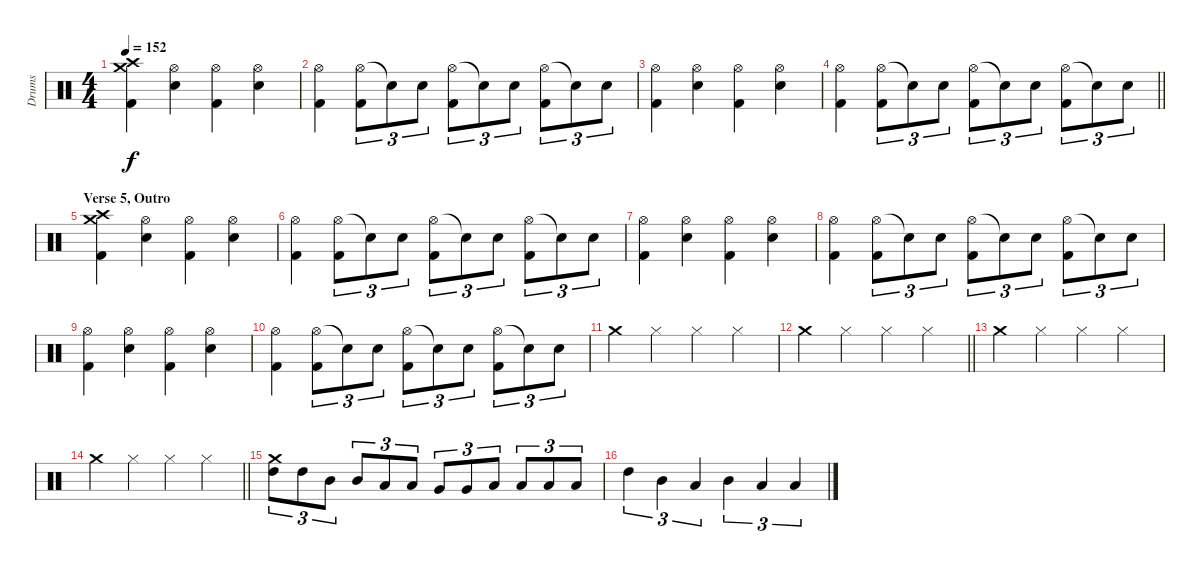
\track ("Drums" "Drums") {instrument percussion}
\staff {score}
\articulation defaults
\ts (4 4)
\tempo 152
\clef neutral
\ks c
("Crash high (hit)" "Crash medium (hit)" "Kick (hit) 2").4{dy f} ("Hi-Hat (open)" "Snare (hit) 2").4 ("Hi-Hat (open)" "Kick (hit) 2").4 ("Hi-Hat (open)" "Snare (hit) 2").4 |
("Hi-Hat (open)" "Kick (hit) 2").4 ("Hi-Hat (open)" "Kick (hit) 2").8{tu (3 2)} "Snare (hit)"{t}.8{tu (3 2)} "Snare (hit) 2".8{tu (3 2)} ("Hi-Hat (open)" "Kick (hit) 2").8{tu (3 2)} "Snare (hit)"{t}.8{tu (3 2)} "Snare (hit) 2".8{tu (3 2)} ("Hi-Hat (open)" "Kick (hit) 2").8{tu (3 2)} "Snare (hit) 2"{t}.8{tu (3 2)} "Snare (hit) 2".8{tu (3 2)} |
("Hi-Hat (open)" "Kick (hit) 2").4 ("Hi-Hat (open)" "Snare (hit) 2").4 ("Hi-Hat (open)" "Kick (hit) 2").4 ("Hi-Hat (open)" "Snare (hit) 2").4 |
\barLineRight lightlight
("Hi-Hat (open)" "Kick (hit) 2").4 ("Hi-Hat (open)" "Kick (hit) 2").8{tu (3 2)} "Snare (hit)"{t}.8{tu (3 2)} "Snare (hit) 2".8{tu (3 2)} ("Hi-Hat (open)" "Kick (hit) 2").8{tu (3 2)} "Snare (hit)"{t}.8{tu (3 2)} "Snare (hit) 2".8{tu (3 2)} ("Hi-Hat (open)" "Kick (hit) 2").8{tu (3 2)} "Snare (hit) 2"{t}.8{tu (3 2)} "Snare (hit) 2".8{tu (3 2)} |
\section ("" "Verse 5, Outro")
("Crash high (hit)" "Crash medium (hit)" "Kick (hit) 2").4 ("Hi-Hat (open)" "Snare (hit) 2").4 ("Hi-Hat (open)" "Kick (hit) 2").4 ("Hi-Hat (open)" "Snare (hit) 2").4 |
("Hi-Hat (open)" "Kick (hit) 2").4 ("Hi-Hat (open)" "Kick (hit) 2").8{tu (3 2)} "Snare (hit)"{t}.8{tu (3 2)} "Snare (hit) 2".8{tu (3 2)} ("Hi-Hat (open)" "Kick (hit) 2").8{tu (3 2)} "Snare (hit)"{t}.8{tu (3 2)} "Snare (hit) 2".8{tu (3 2)} ("Hi-Hat (open)" "Kick (hit) 2").8{tu (3 2)} "Snare (hit) 2"{t}.8{tu (3 2)} "Snare (hit) 2".8{tu (3 2)} |
("Hi-Hat (open)" "Kick (hit) 2").4 ("Hi-Hat (open)" "Snare (hit) 2").4 ("Hi-Hat (open)" "Kick (hit) 2").4 ("Hi-Hat (open)" "Snare (hit) 2").4 |
("Hi-Hat (open)" "Kick (hit) 2").4 ("Hi-Hat (open)" "Kick (hit) 2").8{tu (3 2)} "Snare (hit)"{t}.8{tu (3 2)} "Snare (hit) 2".8{tu (3 2)} ("Hi-Hat (open)" "Kick (hit) 2").8{tu (3 2)} "Snare (hit)"{t}.8{tu (3 2)} "Snare (hit) 2".8{tu (3 2)} ("Hi-Hat (open)" "Kick (hit) 2").8{tu (3 2)} "Snare (hit) 2"{t}.8{tu (3 2)} "Snare (hit) 2".8{tu (3 2)} |
("Hi-Hat (open)" "Kick (hit) 2").4 ("Hi-Hat (open)" "Snare (hit) 2").4 ("Hi-Hat (open)" "Kick (hit) 2").4 ("Hi-Hat (open)" "Snare (hit) 2").4 |
("Hi-Hat (open)" "Kick (hit) 2").4 ("Hi-Hat (open)" "Kick (hit) 2").8{tu (3 2)} "Snare (hit)"{t}.8{tu (3 2)} "Snare (hit) 2".8{tu (3 2)} ("Hi-Hat (open)" "Kick (hit) 2").8{tu (3 2)} "Snare (hit)"{t}.8{tu (3 2)} "Snare (hit) 2".8{tu (3 2)} ("Hi-Hat (open)" "Kick (hit) 2").8{tu (3 2)} "Snare (hit) 2"{t}.8{tu (3 2)} "Snare (hit) 2".8{tu (3 2)} |
"Crash medium (hit)".4 "Hi-Hat (closed)".4 "Hi-Hat (closed)".4 "Hi-Hat (closed)".4 |
\barLineRight lightlight "Crash medium (hit)".4 "Hi-Hat (closed)".4 "Hi-Hat (closed)".4 "Hi-Hat (closed)".4
|
"Crash medium (hit)".4 "Hi-Hat (closed)".4 "Hi-Hat (closed)".4 "Hi-Hat (closed)".4 |
\barLineRight lightlight "Crash medium (hit)".4 "Hi-Hat (closed)".4 "Hi-Hat (closed)".4 "Hi-Hat (closed)".4
|
("Crash medium (hit)" "High Tom (hit)").8{tu (3 2)} "High Tom (hit)".8{tu (3 2)} "Mid Tom (hit)".8{tu (3 2)} "Mid Tom (hit)".8{tu (3 2)} "Low Tom (hit)".8{tu (3 2)} "Low Tom (hit)".8{tu (3 2)} "Very Low Tom (hit)".8{tu (3 2)} "Very Low Tom (hit)".8{tu (3 2)} "Low Floor Tom (hit)".8{tu (3 2)} "Low Floor Tom (hit)".8{tu (3 2)} "Low Floor Tom (hit)".8{tu (3 2)} "Low Floor Tom (hit)".8{tu (3 2)} |
"High Tom (hit)".4{tu (3 2)} "Mid Tom (hit)".4{tu (3 2)} "Low Tom (hit)".4{tu (3 2)} "Mid Tom (hit)".4{tu (3 2)} "Low Tom (hit)".4{tu (3 2)} "Low Floor Tom (hit)".4{tu (3 2)}
